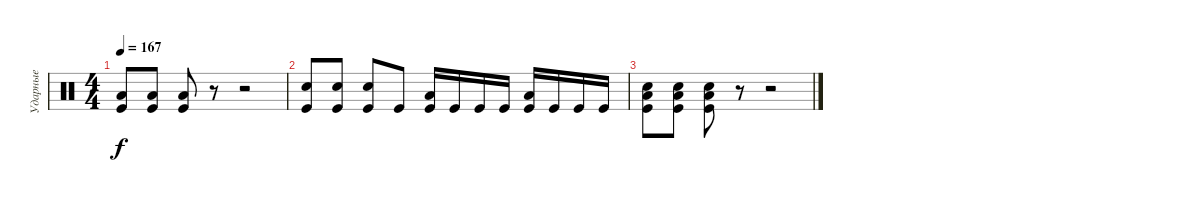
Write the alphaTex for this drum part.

\track ("Ударные" "Ударные") {instrument percussion}
\staff {score}
\articulation defaults
\ts (4 4)
\tempo 167
\clef neutral
\ks c
("Low Tom (hit)" "Kick (hit)").8{dy f} ("Low Tom (hit)" "Kick (hit)").8 ("Low Tom (hit)" "Kick (hit)").8 r.8 r.2 |
("Electric Snare (hit)" "Kick (hit)").8 ("Electric Snare (hit)" "Kick (hit)").8 ("Electric Snare (hit)" "Kick (hit)").8 "Kick (hit)".8 ("Low Tom (hit)" "Kick (hit)").16 "Kick (hit)".16 "Kick (hit)".16 "Kick (hit)".16 ("Low Tom (hit)" "Kick (hit)").16 "Kick (hit)".16 "Kick (hit)".16 "Kick (hit)".16 |
("Low Tom (hit)" "Electric Snare (hit)" "Kick (hit)").8 ("Low Tom (hit)" "Electric Snare (hit)" "Kick (hit)").8 ("Low Tom (hit)" "Electric Snare (hit)" "Kick (hit)").8 r.8 r.2
